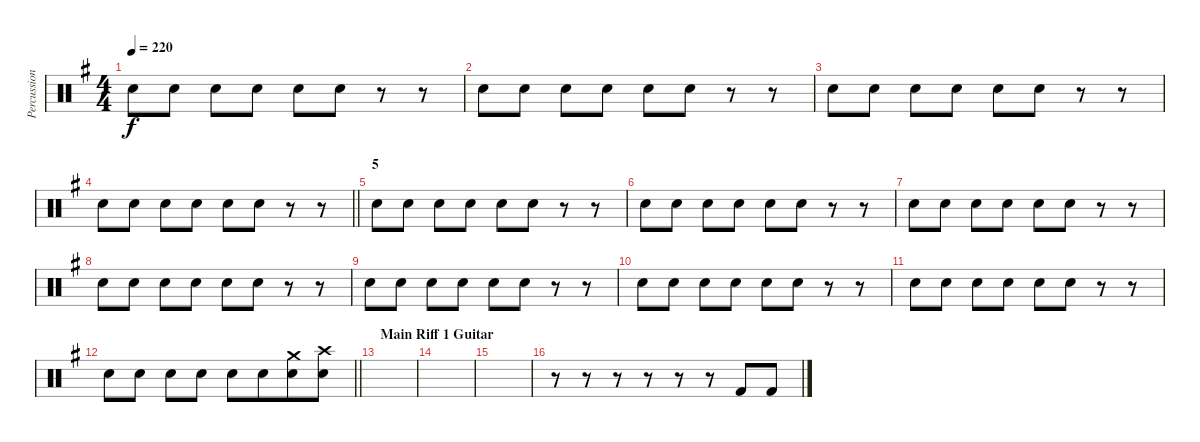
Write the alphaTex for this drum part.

\track ("Percussion" "Percussion") {instrument percussion}
\staff {score}
\articulation defaults
\ts (4 4)
\tempo 220
\clef neutral
\ks eminor "Snare (hit) 2".8{dy f} "Snare (hit) 2".8 "Snare (hit) 2".8{beam merge} "Snare (hit) 2".8 "Snare (hit) 2".8 "Snare (hit) 2".8{beam merge}
r.8 r.8 |
"Snare (hit) 2".8 "Snare (hit) 2".8 "Snare (hit) 2".8{beam merge} "Snare (hit) 2".8 "Snare (hit) 2".8 "Snare (hit) 2".8{beam merge} r.8 r.8 |
"Snare (hit) 2".8 "Snare (hit) 2".8 "Snare (hit) 2".8{beam merge} "Snare (hit) 2".8 "Snare (hit) 2".8 "Snare (hit) 2".8{beam merge} r.8 r.8 |
\barLineRight lightlight "Snare (hit) 2".8 "Snare (hit) 2".8 "Snare (hit) 2".8{beam merge} "Snare (hit) 2".8 "Snare (hit) 2".8 "Snare (hit) 2".8{beam merge}
r.8 r.8 |
\section ("" "5")
"Snare (hit) 2".8 "Snare (hit) 2".8 "Snare (hit) 2".8{beam merge} "Snare (hit) 2".8 "Snare (hit) 2".8 "Snare (hit) 2".8{beam merge} r.8 r.8 |
"Snare (hit) 2".8 "Snare (hit) 2".8 "Snare (hit) 2".8{beam merge} "Snare (hit) 2".8 "Snare (hit) 2".8 "Snare (hit) 2".8{beam merge} r.8 r.8 |
"Snare (hit) 2".8 "Snare (hit) 2".8 "Snare (hit) 2".8{beam merge} "Snare (hit) 2".8 "Snare (hit) 2".8 "Snare (hit) 2".8{beam merge} r.8 r.8 |
"Snare (hit) 2".8 "Snare (hit) 2".8 "Snare (hit) 2".8{beam merge} "Snare (hit) 2".8 "Snare (hit) 2".8 "Snare (hit) 2".8{beam merge} r.8 r.8 |
"Snare (hit) 2".8 "Snare (hit) 2".8 "Snare (hit) 2".8{beam merge} "Snare (hit) 2".8 "Snare (hit) 2".8 "Snare (hit) 2".8{beam merge} r.8 r.8 |
"Snare (hit) 2".8 "Snare (hit) 2".8 "Snare (hit) 2".8{beam merge} "Snare (hit) 2".8 "Snare (hit) 2".8 "Snare (hit) 2".8{beam merge} r.8 r.8 |
"Snare (hit) 2".8 "Snare (hit) 2".8 "Snare (hit) 2".8{beam merge} "Snare (hit) 2".8 "Snare (hit) 2".8 "Snare (hit) 2".8{beam merge} r.8 r.8 |
\barLineRight lightlight "Snare (hit) 2".8 "Snare (hit) 2".8 "Snare (hit) 2".8{beam merge} "Snare (hit) 2".8 "Snare (hit) 2".8 "Snare (hit) 2".8{beam merge}
("Crash medium (hit)" "Snare (hit) 2").8 ("Crash high (hit)" "Snare (hit) 2").8 |
\section ("" "Main Riff 1 Guitar")
|
|
|
r.8{beam merge} r.8{beam merge} r.8 r.8 r.8 r.8 "Kick (hit) 2".8{beam merge} "Kick (hit) 2".8
